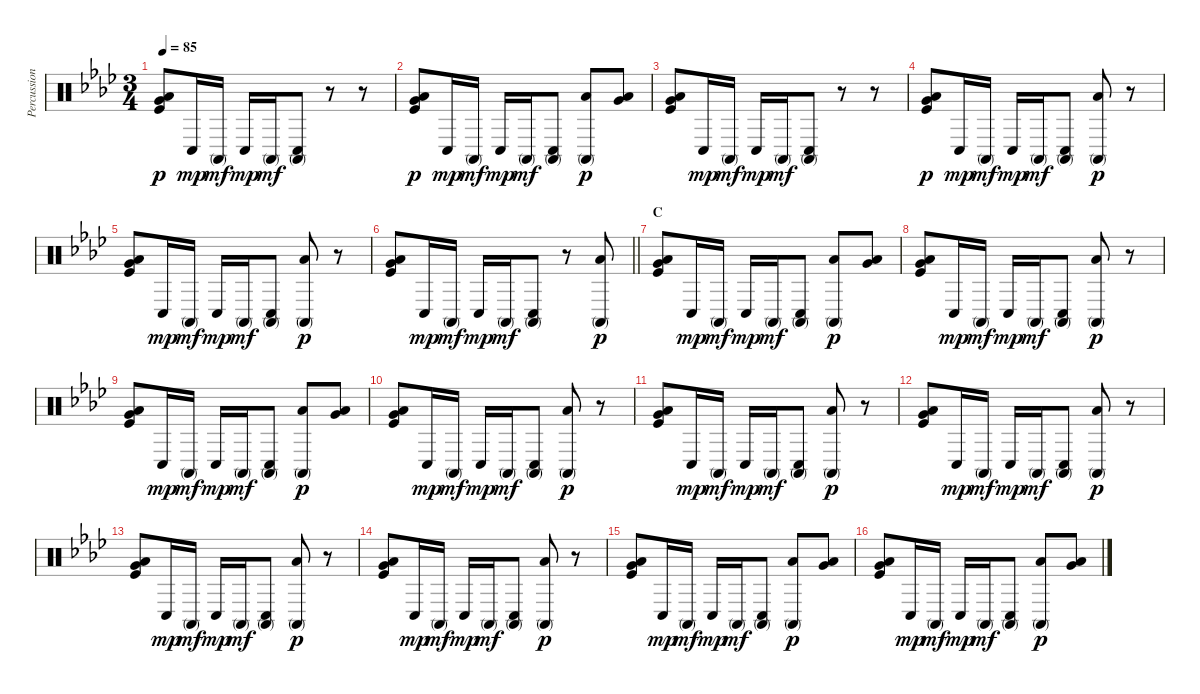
\track ("Percussion" "Percussion") {instrument percussion}
\staff {score}
\articulation defaults
\ts (3 4)
\tempo 85
\clef neutral
\ks fminor
("Kick (hit)" "Low Floor Tom (hit)" "Very Low Tom (hit)").8{dy p} "Conga low (hit)".16{dy mp} "Conga high (mute)".16{dy mf} "Conga low (hit)".16{dy mp} "Conga high (mute)".16{dy mf} ("Conga low (hit)" "Conga high (mute)").8 r.8 r.8 |
("Kick (hit)" "Low Floor Tom (hit)" "Very Low Tom (hit)").8{dy p} "Conga low (hit)".16{dy mp} "Conga high (mute)".16{dy mf} "Conga low (hit)".16{dy mp} "Conga high (mute)".16{dy mf} ("Conga low (hit)" "Conga high (mute)").8 ("Low Tom (hit)" "Conga high (mute)").8{dy p} ("Low Floor Tom (hit)" "Very Low Tom (hit)").8 |
("Kick (hit)" "Low Floor Tom (hit)" "Very Low Tom (hit)").8 "Conga low (hit)".16{dy mp} "Conga high (mute)".16{dy mf} "Conga low (hit)".16{dy mp} "Conga high (mute)".16{dy mf} ("Conga low (hit)" "Conga high (mute)").8 r.8 r.8 |
("Kick (hit)" "Low Floor Tom (hit)" "Very Low Tom (hit)").8{dy p} "Conga low (hit)".16{dy mp} "Conga high (mute)".16{dy mf} "Conga low (hit)".16{dy mp} "Conga high (mute)".16{dy mf} ("Conga low (hit)" "Conga high (mute)").8 ("Low Tom (hit)" "Conga high (mute)").8{dy p} r.8 |
("Kick (hit)" "Low Floor Tom (hit)" "Very Low Tom (hit)").8 "Conga low (hit)".16{dy mp} "Conga high (mute)".16{dy mf} "Conga low (hit)".16{dy mp} "Conga high (mute)".16{dy mf} ("Conga low (hit)" "Conga high (mute)").8 ("Low Tom (hit)" "Conga high (mute)").8{dy p} r.8 |
\barLineRight lightlight
("Kick (hit)" "Low Floor Tom (hit)" "Very Low Tom (hit)").8 "Conga low (hit)".16{dy mp} "Conga high (mute)".16{dy mf} "Conga low (hit)".16{dy mp} "Conga high (mute)".16{dy mf} ("Conga low (hit)" "Conga high (mute)").8 r.8 ("Low Tom (hit)" "Conga high (mute)").8{dy p} |
\section ("" "C")
("Kick (hit)" "Low Floor Tom (hit)" "Very Low Tom (hit)").8{volume 10} "Conga low (hit)".16{dy mp} "Conga high (mute)".16{dy mf} "Conga low (hit)".16{dy mp} "Conga high (mute)".16{dy mf} ("Conga low (hit)" "Conga high (mute)").8 ("Low Tom (hit)" "Conga high (mute)").8{dy p} ("Low Floor Tom (hit)" "Very Low Tom (hit)").8 |
("Kick (hit)" "Low Floor Tom (hit)" "Very Low Tom (hit)").8 "Conga low (hit)".16{dy mp} "Conga high (mute)".16{dy mf} "Conga low (hit)".16{dy mp} "Conga high (mute)".16{dy mf} ("Conga low (hit)" "Conga high (mute)").8 ("Low Tom (hit)" "Conga high (mute)").8{dy p} r.8 |
("Kick (hit)" "Low Floor Tom (hit)" "Very Low Tom (hit)").8 "Conga low (hit)".16{dy mp} "Conga high (mute)".16{dy mf} "Conga low (hit)".16{dy mp} "Conga high (mute)".16{dy mf} ("Conga low (hit)" "Conga high (mute)").8 ("Low Tom (hit)" "Conga high (mute)").8{dy p} ("Low Floor Tom (hit)" "Very Low Tom (hit)").8 |
("Kick (hit)" "Low Floor Tom (hit)" "Very Low Tom (hit)").8 "Conga low (hit)".16{dy mp} "Conga high (mute)".16{dy mf} "Conga low (hit)".16{dy mp} "Conga high (mute)".16{dy mf} ("Conga low (hit)" "Conga high (mute)").8 ("Low Tom (hit)" "Conga high (mute)").8{dy p} r.8 |
("Kick (hit)" "Low Floor Tom (hit)" "Very Low Tom (hit)").8 "Conga low (hit)".16{dy mp} "Conga high (mute)".16{dy mf} "Conga low (hit)".16{dy mp} "Conga high (mute)".16{dy mf} ("Conga low (hit)" "Conga high (mute)").8 ("Low Tom (hit)" "Conga high (mute)").8{dy p} r.8 |
("Kick (hit)" "Low Floor Tom (hit)" "Very Low Tom (hit)").8 "Conga low (hit)".16{dy mp} "Conga high (mute)".16{dy mf} "Conga low (hit)".16{dy mp} "Conga high (mute)".16{dy mf} ("Conga low (hit)" "Conga high (mute)").8 ("Low Tom (hit)" "Conga high (mute)").8{dy p} r.8 |
("Kick (hit)" "Low Floor Tom (hit)" "Very Low Tom (hit)").8 "Conga low (hit)".16{dy mp} "Conga high (mute)".16{dy mf} "Conga low (hit)".16{dy mp} "Conga high (mute)".16{dy mf} ("Conga low (hit)" "Conga high (mute)").8 ("Low Tom (hit)" "Conga high (mute)").8{dy p} r.8 |
("Kick (hit)" "Low Floor Tom (hit)" "Very Low Tom (hit)").8 "Conga low (hit)".16{dy mp} "Conga high (mute)".16{dy mf} "Conga low (hit)".16{dy mp} "Conga high (mute)".16{dy mf} ("Conga low (hit)" "Conga high (mute)").8 ("Low Tom (hit)" "Conga high (mute)").8{dy p} r.8 |
("Kick (hit)" "Low Floor Tom (hit)" "Very Low Tom (hit)").8 "Conga low (hit)".16{dy mp} "Conga high (mute)".16{dy mf} "Conga low (hit)".16{dy mp} "Conga high (mute)".16{dy mf} ("Conga low (hit)" "Conga high (mute)").8 ("Low Tom (hit)" "Conga high (mute)").8{dy p} ("Low Floor Tom (hit)" "Very Low Tom (hit)").8 |
("Kick (hit)" "Low Floor Tom (hit)" "Very Low Tom (hit)").8 "Conga low (hit)".16{dy mp} "Conga high (mute)".16{dy mf} "Conga low (hit)".16{dy mp} "Conga high (mute)".16{dy mf} ("Conga low (hit)" "Conga high (mute)").8 ("Low Tom (hit)" "Conga high (mute)").8{dy p} ("Low Floor Tom (hit)" "Very Low Tom (hit)").8
